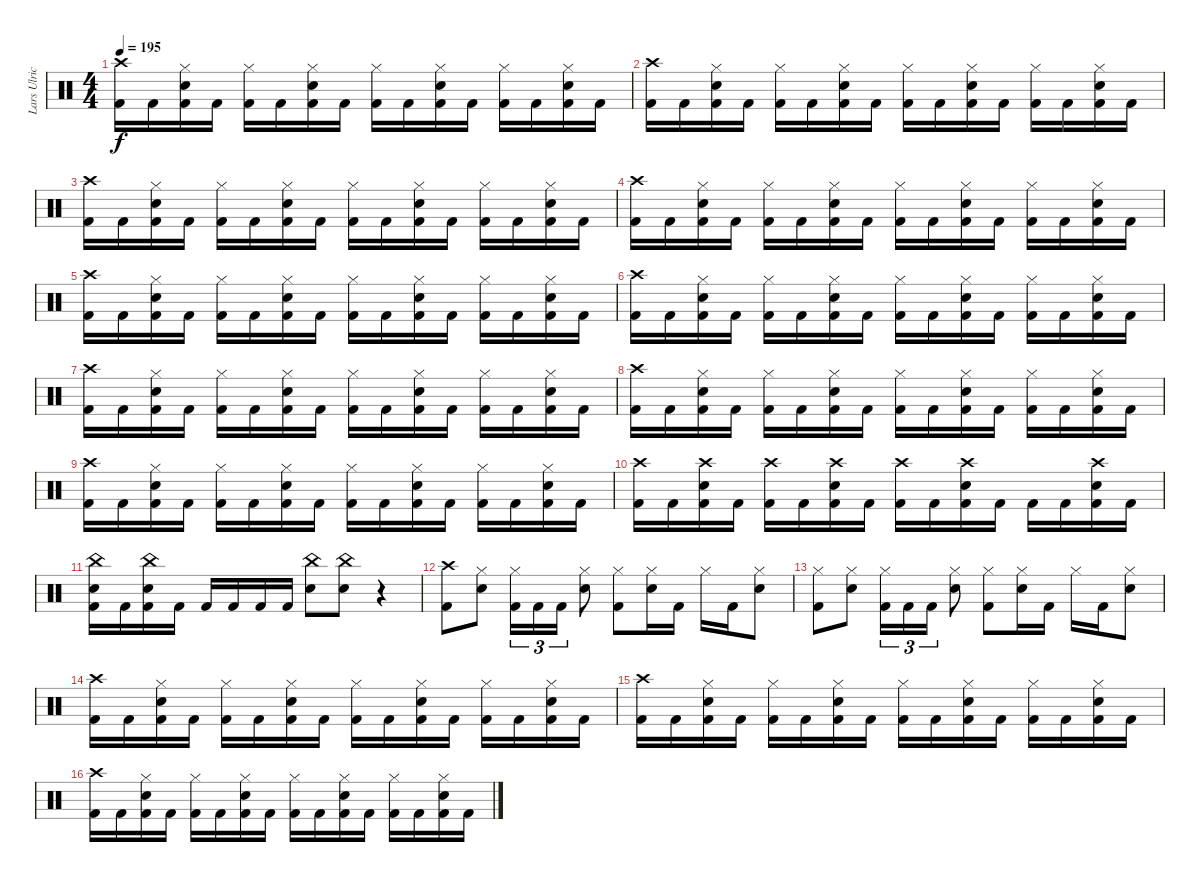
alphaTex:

\track ("Lars Ulrich" "Lars Ulric") {instrument percussion}
\staff {score}
\articulation defaults
\ts (4 4)
\tempo 195
\clef neutral
\ks c
("Crash high (hit)" "Kick (hit) 2").16{dy f} "Kick (hit) 2".16 ("Hi-Hat (closed)" "Electric Snare (hit)" "Kick (hit) 2").16 "Kick (hit) 2".16 ("Hi-Hat (closed)" "Kick (hit) 2").16 "Kick (hit) 2".16 ("Hi-Hat (closed)" "Electric Snare (hit)" "Kick (hit) 2").16 "Kick (hit) 2".16 ("Hi-Hat (closed)" "Kick (hit) 2").16 "Kick (hit) 2".16 ("Hi-Hat (closed)" "Electric Snare (hit)" "Kick (hit) 2").16 "Kick (hit) 2".16 ("Hi-Hat (closed)" "Kick (hit) 2").16 "Kick (hit) 2".16 ("Hi-Hat (closed)" "Electric Snare (hit)" "Kick (hit) 2").16 "Kick (hit) 2".16 |
("Crash high (hit)" "Kick (hit) 2").16 "Kick (hit) 2".16 ("Hi-Hat (closed)" "Electric Snare (hit)" "Kick (hit) 2").16 "Kick (hit) 2".16 ("Hi-Hat (closed)" "Kick (hit) 2").16 "Kick (hit) 2".16 ("Hi-Hat (closed)" "Electric Snare (hit)" "Kick (hit) 2").16 "Kick (hit) 2".16 ("Hi-Hat (closed)" "Kick (hit) 2").16 "Kick (hit) 2".16 ("Hi-Hat (closed)" "Electric Snare (hit)" "Kick (hit) 2").16 "Kick (hit) 2".16 ("Hi-Hat (closed)" "Kick (hit) 2").16 "Kick (hit) 2".16 ("Hi-Hat (closed)" "Electric Snare (hit)" "Kick (hit) 2").16 "Kick (hit) 2".16 |
("Crash high (hit)" "Kick (hit) 2").16 "Kick (hit) 2".16 ("Hi-Hat (closed)" "Electric Snare (hit)" "Kick (hit) 2").16 "Kick (hit) 2".16 ("Hi-Hat (closed)" "Kick (hit) 2").16 "Kick (hit) 2".16 ("Hi-Hat (closed)" "Electric Snare (hit)" "Kick (hit) 2").16 "Kick (hit) 2".16 ("Hi-Hat (closed)" "Kick (hit) 2").16 "Kick (hit) 2".16 ("Hi-Hat (closed)" "Electric Snare (hit)" "Kick (hit) 2").16 "Kick (hit) 2".16 ("Hi-Hat (closed)" "Kick (hit) 2").16 "Kick (hit) 2".16 ("Hi-Hat (closed)" "Electric Snare (hit)" "Kick (hit) 2").16 "Kick (hit) 2".16 |
("Crash high (hit)" "Kick (hit) 2").16 "Kick (hit) 2".16 ("Hi-Hat (closed)" "Electric Snare (hit)" "Kick (hit) 2").16 "Kick (hit) 2".16 ("Hi-Hat (closed)" "Kick (hit) 2").16 "Kick (hit) 2".16 ("Hi-Hat (closed)" "Electric Snare (hit)" "Kick (hit) 2").16 "Kick (hit) 2".16 ("Hi-Hat (closed)" "Kick (hit) 2").16 "Kick (hit) 2".16 ("Hi-Hat (closed)" "Electric Snare (hit)" "Kick (hit) 2").16 "Kick (hit) 2".16 ("Hi-Hat (closed)" "Kick (hit) 2").16 "Kick (hit) 2".16 ("Hi-Hat (closed)" "Electric Snare (hit)" "Kick (hit) 2").16 "Kick (hit) 2".16 |
("Crash high (hit)" "Kick (hit) 2").16 "Kick (hit) 2".16 ("Hi-Hat (closed)" "Electric Snare (hit)" "Kick (hit) 2").16 "Kick (hit) 2".16 ("Hi-Hat (closed)" "Kick (hit) 2").16 "Kick (hit) 2".16 ("Hi-Hat (closed)" "Electric Snare (hit)" "Kick (hit) 2").16 "Kick (hit) 2".16 ("Hi-Hat (closed)" "Kick (hit) 2").16 "Kick (hit) 2".16 ("Hi-Hat (closed)" "Electric Snare (hit)" "Kick (hit) 2").16 "Kick (hit) 2".16 ("Hi-Hat (closed)" "Kick (hit) 2").16 "Kick (hit) 2".16 ("Hi-Hat (closed)" "Electric Snare (hit)" "Kick (hit) 2").16 "Kick (hit) 2".16 |
("Crash high (hit)" "Kick (hit) 2").16 "Kick (hit) 2".16 ("Hi-Hat (closed)" "Electric Snare (hit)" "Kick (hit) 2").16 "Kick (hit) 2".16 ("Hi-Hat (closed)" "Kick (hit) 2").16 "Kick (hit) 2".16 ("Hi-Hat (closed)" "Electric Snare (hit)" "Kick (hit) 2").16 "Kick (hit) 2".16 ("Hi-Hat (closed)" "Kick (hit) 2").16 "Kick (hit) 2".16 ("Hi-Hat (closed)" "Electric Snare (hit)" "Kick (hit) 2").16 "Kick (hit) 2".16 ("Hi-Hat (closed)" "Kick (hit) 2").16 "Kick (hit) 2".16 ("Hi-Hat (closed)" "Electric Snare (hit)" "Kick (hit) 2").16 "Kick (hit) 2".16 |
("Crash high (hit)" "Kick (hit) 2").16 "Kick (hit) 2".16 ("Hi-Hat (closed)" "Electric Snare (hit)" "Kick (hit) 2").16 "Kick (hit) 2".16 ("Hi-Hat (closed)" "Kick (hit) 2").16 "Kick (hit) 2".16 ("Hi-Hat (closed)" "Electric Snare (hit)" "Kick (hit) 2").16 "Kick (hit) 2".16 ("Hi-Hat (closed)" "Kick (hit) 2").16 "Kick (hit) 2".16 ("Hi-Hat (closed)" "Electric Snare (hit)" "Kick (hit) 2").16 "Kick (hit) 2".16 ("Hi-Hat (closed)" "Kick (hit) 2").16 "Kick (hit) 2".16 ("Hi-Hat (closed)" "Electric Snare (hit)" "Kick (hit) 2").16 "Kick (hit) 2".16 |
("Crash high (hit)" "Kick (hit) 2").16 "Kick (hit) 2".16 ("Hi-Hat (closed)" "Electric Snare (hit)" "Kick (hit) 2").16 "Kick (hit) 2".16 ("Hi-Hat (closed)" "Kick (hit) 2").16 "Kick (hit) 2".16 ("Hi-Hat (closed)" "Electric Snare (hit)" "Kick (hit) 2").16 "Kick (hit) 2".16 ("Hi-Hat (closed)" "Kick (hit) 2").16 "Kick (hit) 2".16 ("Hi-Hat (closed)" "Electric Snare (hit)" "Kick (hit) 2").16 "Kick (hit) 2".16 ("Hi-Hat (closed)" "Kick (hit) 2").16 "Kick (hit) 2".16 ("Hi-Hat (closed)" "Electric Snare (hit)" "Kick (hit) 2").16 "Kick (hit) 2".16 |
("Crash high (hit)" "Kick (hit) 2").16 "Kick (hit) 2".16 ("Hi-Hat (closed)" "Electric Snare (hit)" "Kick (hit) 2").16 "Kick (hit) 2".16 ("Hi-Hat (closed)" "Kick (hit) 2").16 "Kick (hit) 2".16 ("Hi-Hat (closed)" "Electric Snare (hit)" "Kick (hit) 2").16 "Kick (hit) 2".16 ("Hi-Hat (closed)" "Kick (hit) 2").16 "Kick (hit) 2".16 ("Hi-Hat (closed)" "Electric Snare (hit)" "Kick (hit) 2").16 "Kick (hit) 2".16 ("Hi-Hat (closed)" "Kick (hit) 2").16 "Kick (hit) 2".16 ("Hi-Hat (closed)" "Electric Snare (hit)" "Kick (hit) 2").16 "Kick (hit) 2".16 |
("Crash high (hit)" "Kick (hit) 2").16 "Kick (hit) 2".16 ("Crash high (hit)" "Electric Snare (hit)" "Kick (hit) 2").16 "Kick (hit) 2".16 ("Crash high (hit)" "Kick (hit) 2").16 "Kick (hit) 2".16 ("Crash high (hit)" "Electric Snare (hit)" "Kick (hit) 2").16 "Kick (hit) 2".16 ("Crash high (hit)" "Kick (hit) 2").16 "Kick (hit) 2".16 ("Crash high (hit)" "Electric Snare (hit)" "Kick (hit) 2").16 "Kick (hit) 2".16 "Kick (hit) 2".16 "Kick (hit) 2".16 ("Crash high (hit)" "Electric Snare (hit)" "Kick (hit) 2").16 "Kick (hit) 2".16 |
("China (hit)" "Electric Snare (hit)" "Kick (hit) 2").16 "Kick (hit) 2".16 ("China (hit)" "Electric Snare (hit)" "Kick (hit) 2").16 "Kick (hit) 2".16 "Kick (hit) 2".16 "Kick (hit) 2".16 "Kick (hit) 2".16 "Kick (hit) 2".16 ("China (hit)" "Electric Snare (hit)").8 ("China (hit)" "Electric Snare (hit)").8 r.4 |
("Crash high (hit)" "Kick (hit) 2").8 ("Hi-Hat (closed)" "Electric Snare (hit)").8 ("Hi-Hat (closed)" "Kick (hit) 2").16{tu (3 2)} "Kick (hit) 2".16{tu (3 2)} "Kick (hit) 2".16{tu (3 2)} ("Hi-Hat (closed)" "Electric Snare (hit)").8 ("Hi-Hat (closed)" "Kick (hit) 2").8 ("Hi-Hat (closed)" "Electric Snare (hit)").16 "Kick (hit) 2".16 "Hi-Hat (closed)".16 "Kick (hit) 2".16 ("Hi-Hat (closed)" "Electric Snare (hit)").8 |
("Hi-Hat (closed)" "Kick (hit) 2").8 ("Hi-Hat (closed)" "Electric Snare (hit)").8 ("Hi-Hat (closed)" "Kick (hit) 2").16{tu (3 2)} "Kick (hit) 2".16{tu (3 2)} "Kick (hit) 2".16{tu (3 2)} ("Hi-Hat (closed)" "Electric Snare (hit)").8 ("Hi-Hat (closed)" "Kick (hit) 2").8 ("Hi-Hat (closed)" "Electric Snare (hit)").16 "Kick (hit) 2".16 "Hi-Hat (closed)".16 "Kick (hit) 2".16 ("Hi-Hat (closed)" "Electric Snare (hit)").8 |
("Crash high (hit)" "Kick (hit) 2").16 "Kick (hit) 2".16 ("Hi-Hat (closed)" "Electric Snare (hit)" "Kick (hit) 2").16 "Kick (hit) 2".16 ("Hi-Hat (closed)" "Kick (hit) 2").16 "Kick (hit) 2".16 ("Hi-Hat (closed)" "Electric Snare (hit)" "Kick (hit) 2").16 "Kick (hit) 2".16 ("Hi-Hat (closed)" "Kick (hit) 2").16 "Kick (hit) 2".16 ("Hi-Hat (closed)" "Electric Snare (hit)" "Kick (hit) 2").16 "Kick (hit) 2".16 ("Hi-Hat (closed)" "Kick (hit) 2").16 "Kick (hit) 2".16 ("Hi-Hat (closed)" "Electric Snare (hit)" "Kick (hit) 2").16 "Kick (hit) 2".16 |
("Crash high (hit)" "Kick (hit) 2").16 "Kick (hit) 2".16 ("Hi-Hat (closed)" "Electric Snare (hit)" "Kick (hit) 2").16 "Kick (hit) 2".16 ("Hi-Hat (closed)" "Kick (hit) 2").16 "Kick (hit) 2".16 ("Hi-Hat (closed)" "Electric Snare (hit)" "Kick (hit) 2").16 "Kick (hit) 2".16 ("Hi-Hat (closed)" "Kick (hit) 2").16 "Kick (hit) 2".16 ("Hi-Hat (closed)" "Electric Snare (hit)" "Kick (hit) 2").16 "Kick (hit) 2".16 ("Hi-Hat (closed)" "Kick (hit) 2").16 "Kick (hit) 2".16 ("Hi-Hat (closed)" "Electric Snare (hit)" "Kick (hit) 2").16 "Kick (hit) 2".16 |
("Crash high (hit)" "Kick (hit) 2").16 "Kick (hit) 2".16 ("Hi-Hat (closed)" "Electric Snare (hit)" "Kick (hit) 2").16 "Kick (hit) 2".16 ("Hi-Hat (closed)" "Kick (hit) 2").16 "Kick (hit) 2".16 ("Hi-Hat (closed)" "Electric Snare (hit)" "Kick (hit) 2").16 "Kick (hit) 2".16 ("Hi-Hat (closed)" "Kick (hit) 2").16 "Kick (hit) 2".16 ("Hi-Hat (closed)" "Electric Snare (hit)" "Kick (hit) 2").16 "Kick (hit) 2".16 ("Hi-Hat (closed)" "Kick (hit) 2").16 "Kick (hit) 2".16 ("Hi-Hat (closed)" "Electric Snare (hit)" "Kick (hit) 2").16 "Kick (hit) 2".16
